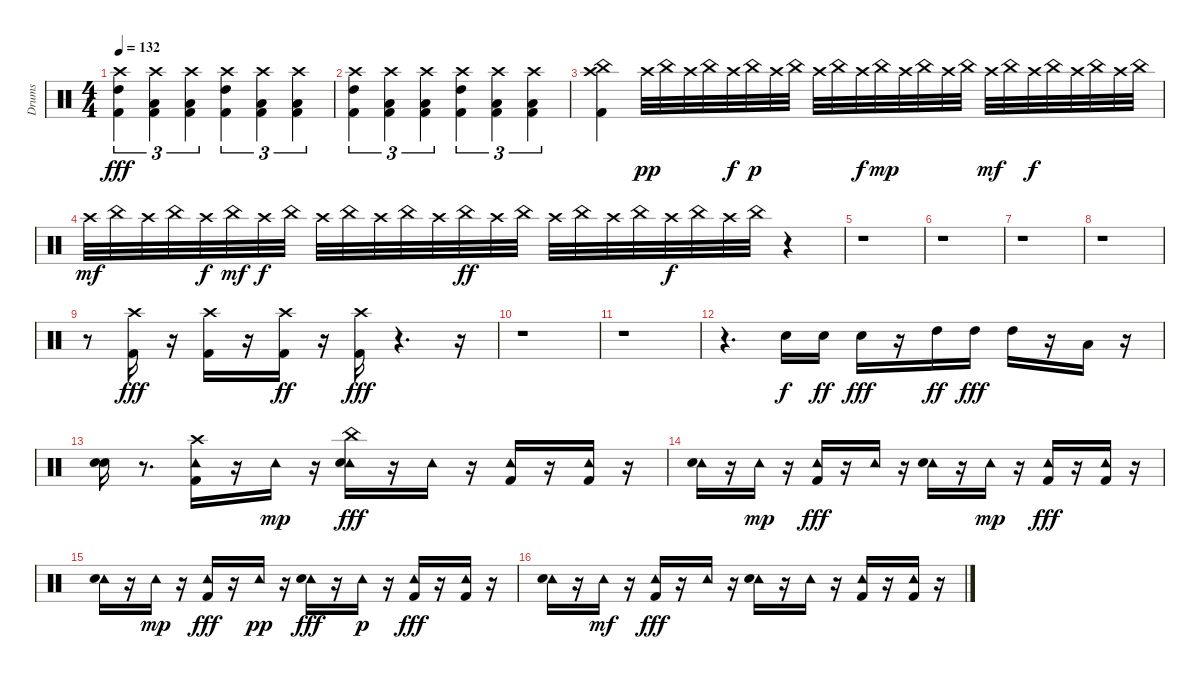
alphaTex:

\track ("Drums" "Drums") {instrument percussion}
\staff {score}
\articulation defaults
\ts (4 4)
\tempo 132
\clef neutral
\ks c
("Crash high (hit)" "High Tom (hit)" "Kick (hit) 2").4{tu (3 2) dy fff} ("Crash high (hit)" "Low Tom (hit)" "Kick (hit) 2").4{tu (3 2)} ("Crash high (hit)" "Low Floor Tom (hit)" "Kick (hit) 2").4{tu (3 2)} ("Crash high (hit)" "High Tom (hit)" "Kick (hit) 2").4{tu (3 2)} ("Crash high (hit)" "Low Tom (hit)" "Kick (hit) 2").4{tu (3 2)} ("Crash high (hit)" "Low Floor Tom (hit)" "Kick (hit) 2").4{tu (3 2)} |
("Crash high (hit)" "High Tom (hit)" "Kick (hit) 2").4{tu (3 2)} ("Crash high (hit)" "Low Tom (hit)" "Kick (hit) 2").4{tu (3 2)} ("Crash high (hit)" "Low Floor Tom (hit)" "Kick (hit) 2").4{tu (3 2)} ("Crash high (hit)" "High Tom (hit)" "Kick (hit) 2").4{tu (3 2)} ("Crash high (hit)" "Low Tom (hit)" "Kick (hit) 2").4{tu (3 2)} ("Crash high (hit)" "Low Floor Tom (hit)" "Kick (hit) 2").4{tu (3 2)} |
("China (hit)" "Crash high (hit)" "Kick (hit) 2").4 "Crash high (hit)".32{dy pp} "China (hit)".32 "Crash high (hit)".32 "China (hit)".32 "Crash high (hit)".32{dy f} "China (hit)".32{dy p} "Crash high (hit)".32 "China (hit)".32 "Crash high (hit)".32 "China (hit)".32 "Crash high (hit)".32{dy f} "China (hit)".32{dy mp} "Crash high (hit)".32 "China (hit)".32 "Crash high (hit)".32 "China (hit)".32 "Crash high (hit)".32{dy mf} "China (hit)".32 "Crash high (hit)".32{dy f} "China (hit)".32 "Crash high (hit)".32 "China (hit)".32 "Crash high (hit)".32 "China (hit)".32 |
"Crash high (hit)".32{dy mf} "China (hit)".32 "Crash high (hit)".32 "China (hit)".32 "Crash high (hit)".32{dy f} "China (hit)".32{dy mf} "Crash high (hit)".32{dy f} "China (hit)".32 "Crash high (hit)".32 "China (hit)".32 "Crash high (hit)".32 "China (hit)".32 "Crash high (hit)".32 "China (hit)".32{dy ff} "Crash high (hit)".32 "China (hit)".32 "Crash high (hit)".32 "China (hit)".32 "Crash high (hit)".32 "China (hit)".32 "Crash high (hit)".32{dy f} "China (hit)".32 "Crash high (hit)".32 "China (hit)".32 r.4 |
r.1 |
r.1 |
r.1 |
r.1 |
r.8 ("Crash high (hit)" "Kick (hit) 2").16{dy fff} r.16 ("Crash high (hit)" "Kick (hit) 2").16 r.16 ("Crash high (hit)" "Kick (hit) 2").16{dy ff} r.16 ("Crash high (hit)" "Kick (hit) 2").16{dy fff} r.4{d} r.16 |
r.1 |
r.1 |
r.4{d} "Snare (hit) 2".16{dy f} "Snare (hit) 2".16{dy ff} "Snare (hit) 2".16{dy fff} r.16 "High Tom (hit)".16{dy ff} "High Tom (hit)".16{dy fff} "High Tom (hit)".16 r.16 "Low Tom (hit)".16 r.16 |
("Snare (hit) 2" "Snare (hit) 2").16 r.8{d} ("Tambourine (hit)" "Crash high (hit)" "Kick (hit) 2").16 r.16 "Tambourine (hit)".16{dy mp} r.16 ("Tambourine (hit)" "China (hit)" "Snare (hit) 2").16{dy fff} r.16 "Tambourine (hit)".16 r.16 ("Tambourine (hit)" "Kick (hit) 2").16 r.16 ("Tambourine (hit)" "Kick (hit) 2").16 r.16 |
("Tambourine (hit)" "Snare (hit) 2").16 r.16 "Tambourine (hit)".16{dy mp} r.16 ("Tambourine (hit)" "Kick (hit) 2").16{dy fff} r.16 "Tambourine (hit)".16 r.16 ("Tambourine (hit)" "Snare (hit) 2").16 r.16 "Tambourine (hit)".16{dy mp} r.16 ("Tambourine (hit)" "Kick (hit) 2").16{dy fff} r.16 ("Tambourine (hit)" "Kick (hit) 2").16 r.16 |
("Tambourine (hit)" "Snare (hit) 2").16 r.16 "Tambourine (hit)".16{dy mp} r.16 ("Tambourine (hit)" "Kick (hit) 2").16{dy fff} r.16 "Tambourine (hit)".16{dy pp} r.16 ("Tambourine (hit)" "Snare (hit) 2").16{dy fff} r.16 "Tambourine (hit)".16{dy p} r.16 ("Tambourine (hit)" "Kick (hit) 2").16{dy fff} r.16 ("Tambourine (hit)" "Kick (hit) 2").16 r.16 |
("Tambourine (hit)" "Snare (hit) 2").16 r.16 "Tambourine (hit)".16{dy mf} r.16 ("Tambourine (hit)" "Kick (hit) 2").16{dy fff} r.16 "Tambourine (hit)".16 r.16 ("Tambourine (hit)" "Snare (hit) 2").16 r.16 "Tambourine (hit)".16 r.16 ("Tambourine (hit)" "Kick (hit) 2").16 r.16 ("Tambourine (hit)" "Kick (hit) 2").16 r.16
